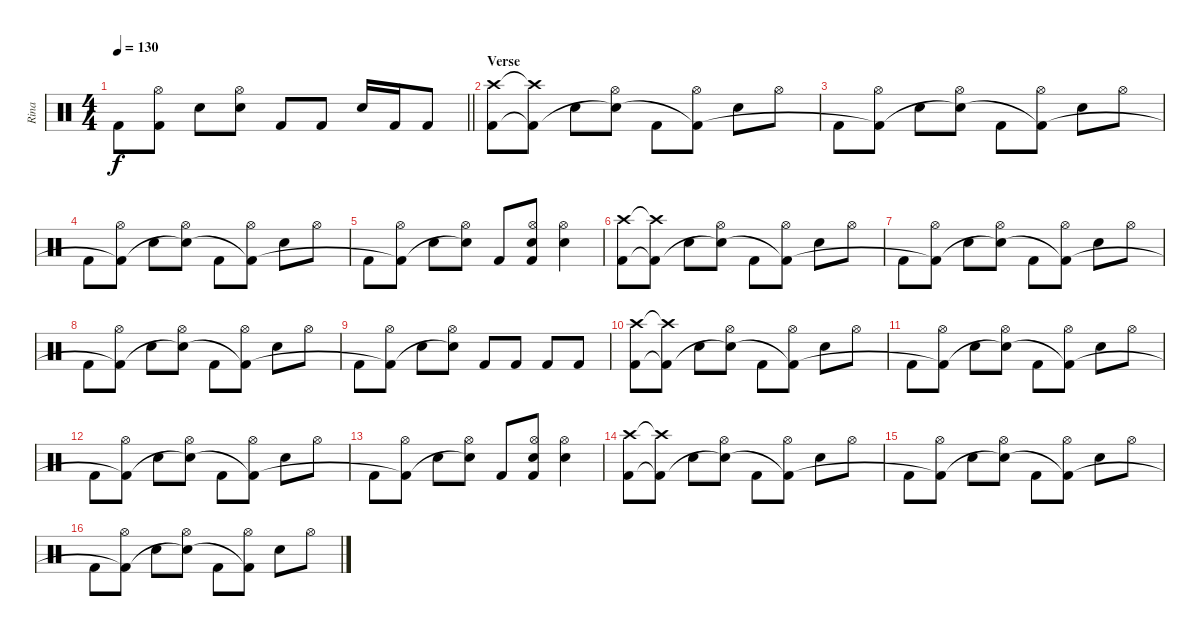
\track ("Rina" "Rina") {instrument percussion}
\staff {score}
\articulation defaults
\ts (4 4)
\tempo 130
\clef neutral
\barLineRight lightlight
\ks c "Kick (hit) 2".8{dy f}
("Hi-Hat (open)" "Kick (hit) 2"{t}).8 "Snare (hit) 2".8 ("Hi-Hat (open)" "Snare (hit) 2").8 "Kick (hit) 2".8 "Kick (hit) 2".8 "Snare (hit) 2".16 "Kick (hit) 2".16 "Kick (hit) 2".8 |
\section ("" "Verse")
("Crash high (hit)" "Kick (hit) 2").8 ("Crash high (hit)"{t} "Kick (hit) 2"{t}).8 "Snare (hit) 2".8 ("Hi-Hat (open)" "Snare (hit) 2"{t}).8 "Kick (hit) 2".8 ("Hi-Hat (open)" "Kick (hit) 2"{t}).8 "Snare (hit) 2".8 "Hi-Hat (open)".8 |
"Kick (hit) 2".8 ("Hi-Hat (open)" "Kick (hit) 2"{t}).8 "Snare (hit) 2".8 ("Hi-Hat (open)" "Snare (hit) 2"{t}).8 "Kick (hit) 2".8 ("Hi-Hat (open)" "Kick (hit) 2"{t}).8 "Snare (hit) 2".8 "Hi-Hat (open)".8 |
"Kick (hit) 2".8 ("Hi-Hat (open)" "Kick (hit) 2"{t}).8 "Snare (hit) 2".8 ("Hi-Hat (open)" "Snare (hit) 2"{t}).8 "Kick (hit) 2".8 ("Hi-Hat (open)" "Kick (hit) 2"{t}).8 "Snare (hit) 2".8 "Hi-Hat (open)".8 |
"Kick (hit) 2".8 ("Hi-Hat (open)" "Kick (hit) 2"{t}).8 "Snare (hit) 2".8 ("Hi-Hat (open)" "Snare (hit) 2"{t}).8 "Kick (hit) 2".8 ("Hi-Hat (open)" "Snare (hit) 2" "Kick (hit) 2").8 ("Hi-Hat (open)" "Snare (hit) 2").4 |
("Crash high (hit)" "Kick (hit) 2").8 ("Crash high (hit)"{t} "Kick (hit) 2"{t}).8 "Snare (hit) 2".8 ("Hi-Hat (open)" "Snare (hit) 2"{t}).8 "Kick (hit) 2".8 ("Hi-Hat (open)" "Kick (hit) 2"{t}).8 "Snare (hit) 2".8 "Hi-Hat (open)".8 |
"Kick (hit) 2".8 ("Hi-Hat (open)" "Kick (hit) 2"{t}).8 "Snare (hit) 2".8 ("Hi-Hat (open)" "Snare (hit) 2"{t}).8 "Kick (hit) 2".8 ("Hi-Hat (open)" "Kick (hit) 2"{t}).8 "Snare (hit) 2".8 "Hi-Hat (open)".8 |
"Kick (hit) 2".8 ("Hi-Hat (open)" "Kick (hit) 2"{t}).8 "Snare (hit) 2".8 ("Hi-Hat (open)" "Snare (hit) 2"{t}).8 "Kick (hit) 2".8 ("Hi-Hat (open)" "Kick (hit) 2"{t}).8 "Snare (hit) 2".8 "Hi-Hat (open)".8 |
"Kick (hit) 2".8 ("Hi-Hat (open)" "Kick (hit) 2"{t}).8 "Snare (hit) 2".8 ("Hi-Hat (open)" "Snare (hit) 2"{t}).8 "Kick (hit) 2".8 "Kick (hit) 2".8 "Kick (hit) 2".8 "Kick (hit) 2".8 |
("Crash high (hit)" "Kick (hit) 2").8 ("Crash high (hit)"{t} "Kick (hit) 2"{t}).8 "Snare (hit) 2".8 ("Hi-Hat (open)" "Snare (hit) 2"{t}).8 "Kick (hit) 2".8 ("Hi-Hat (open)" "Kick (hit) 2"{t}).8 "Snare (hit) 2".8 "Hi-Hat (open)".8 |
"Kick (hit) 2".8 ("Hi-Hat (open)" "Kick (hit) 2"{t}).8 "Snare (hit) 2".8 ("Hi-Hat (open)" "Snare (hit) 2"{t}).8 "Kick (hit) 2".8 ("Hi-Hat (open)" "Kick (hit) 2"{t}).8 "Snare (hit) 2".8 "Hi-Hat (open)".8 |
"Kick (hit) 2".8 ("Hi-Hat (open)" "Kick (hit) 2"{t}).8 "Snare (hit) 2".8 ("Hi-Hat (open)" "Snare (hit) 2"{t}).8 "Kick (hit) 2".8 ("Hi-Hat (open)" "Kick (hit) 2"{t}).8 "Snare (hit) 2".8 "Hi-Hat (open)".8 |
"Kick (hit) 2".8 ("Hi-Hat (open)" "Kick (hit) 2"{t}).8 "Snare (hit) 2".8 ("Hi-Hat (open)" "Snare (hit) 2"{t}).8 "Kick (hit) 2".8 ("Hi-Hat (open)" "Snare (hit) 2" "Kick (hit) 2").8 ("Hi-Hat (open)" "Snare (hit) 2").4 |
("Crash high (hit)" "Kick (hit) 2").8 ("Crash high (hit)"{t} "Kick (hit) 2"{t}).8 "Snare (hit) 2".8 ("Hi-Hat (open)" "Snare (hit) 2"{t}).8 "Kick (hit) 2".8 ("Hi-Hat (open)" "Kick (hit) 2"{t}).8 "Snare (hit) 2".8 "Hi-Hat (open)".8 |
"Kick (hit) 2".8 ("Hi-Hat (open)" "Kick (hit) 2"{t}).8 "Snare (hit) 2".8 ("Hi-Hat (open)" "Snare (hit) 2"{t}).8 "Kick (hit) 2".8 ("Hi-Hat (open)" "Kick (hit) 2"{t}).8 "Snare (hit) 2".8 "Hi-Hat (open)".8 |
"Kick (hit) 2".8 ("Hi-Hat (open)" "Kick (hit) 2"{t}).8 "Snare (hit) 2".8 ("Hi-Hat (open)" "Snare (hit) 2"{t}).8 "Kick (hit) 2".8 ("Hi-Hat (open)" "Kick (hit) 2"{t}).8 "Snare (hit) 2".8 "Hi-Hat (open)".8
